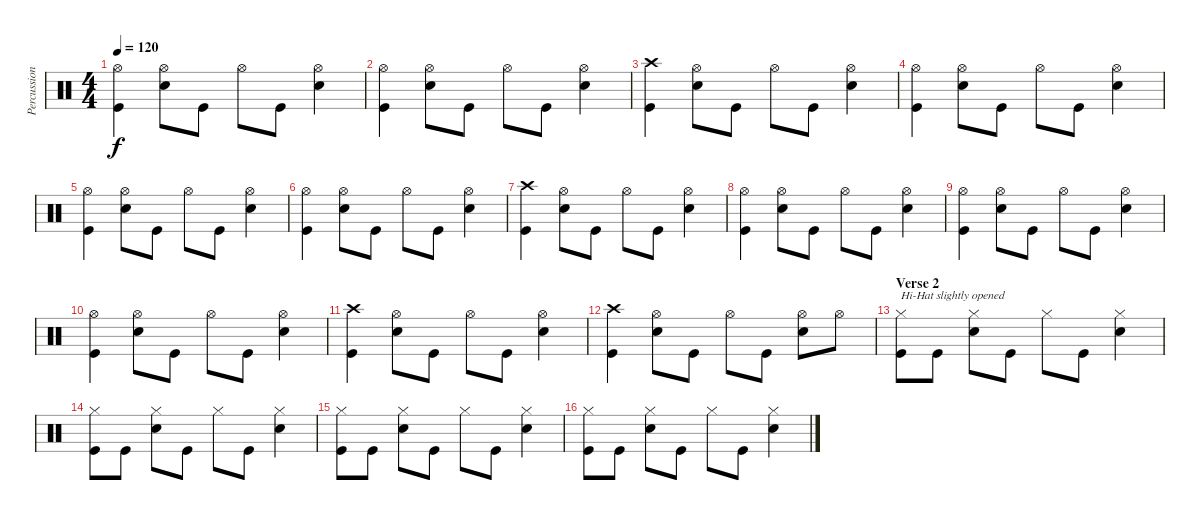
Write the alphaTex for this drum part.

\track ("Percussion" "Percussion") {instrument percussion}
\staff {score}
\articulation defaults
\ts (4 4)
\tempo 120
\clef neutral
\ks c
("Hi-Hat (open)" "Kick (hit)").4{dy f} ("Hi-Hat (open)" "Snare (hit) 2").8 "Kick (hit)".8 "Hi-Hat (open)".8 "Kick (hit)".8 ("Hi-Hat (open)" "Snare (hit) 2").4 |
("Hi-Hat (open)" "Kick (hit)").4 ("Hi-Hat (open)" "Snare (hit) 2").8 "Kick (hit)".8 "Hi-Hat (open)".8 "Kick (hit)".8 ("Hi-Hat (open)" "Snare (hit) 2").4 |
("Crash high (hit)" "Kick (hit)").4 ("Hi-Hat (open)" "Snare (hit) 2").8 "Kick (hit)".8 "Hi-Hat (open)".8 "Kick (hit)".8 ("Hi-Hat (open)" "Snare (hit) 2").4 |
("Hi-Hat (open)" "Kick (hit)").4 ("Hi-Hat (open)" "Snare (hit) 2").8 "Kick (hit)".8 "Hi-Hat (open)".8 "Kick (hit)".8 ("Hi-Hat (open)" "Snare (hit) 2").4 |
("Hi-Hat (open)" "Kick (hit)").4 ("Hi-Hat (open)" "Snare (hit) 2").8 "Kick (hit)".8 "Hi-Hat (open)".8 "Kick (hit)".8 ("Hi-Hat (open)" "Snare (hit) 2").4 |
("Hi-Hat (open)" "Kick (hit)").4 ("Hi-Hat (open)" "Snare (hit) 2").8 "Kick (hit)".8 "Hi-Hat (open)".8 "Kick (hit)".8 ("Hi-Hat (open)" "Snare (hit) 2").4 |
("Crash high (hit)" "Kick (hit)").4 ("Hi-Hat (open)" "Snare (hit) 2").8 "Kick (hit)".8 "Hi-Hat (open)".8 "Kick (hit)".8 ("Hi-Hat (open)" "Snare (hit) 2").4 |
("Hi-Hat (open)" "Kick (hit)").4 ("Hi-Hat (open)" "Snare (hit) 2").8 "Kick (hit)".8 "Hi-Hat (open)".8 "Kick (hit)".8 ("Hi-Hat (open)" "Snare (hit) 2").4 |
("Hi-Hat (open)" "Kick (hit)").4 ("Hi-Hat (open)" "Snare (hit) 2").8 "Kick (hit)".8 "Hi-Hat (open)".8 "Kick (hit)".8 ("Hi-Hat (open)" "Snare (hit) 2").4 |
("Hi-Hat (open)" "Kick (hit)").4 ("Hi-Hat (open)" "Snare (hit) 2").8 "Kick (hit)".8 "Hi-Hat (open)".8 "Kick (hit)".8 ("Hi-Hat (open)" "Snare (hit) 2").4 |
("Crash high (hit)" "Kick (hit)").4 ("Hi-Hat (open)" "Snare (hit) 2").8 "Kick (hit)".8 "Hi-Hat (open)".8 "Kick (hit)".8 ("Hi-Hat (open)" "Snare (hit) 2").4 |
("Crash high (hit)" "Kick (hit)").4 ("Hi-Hat (open)" "Snare (hit) 2").8 "Kick (hit)".8 "Hi-Hat (open)".8 "Kick (hit)".8 ("Hi-Hat (open)" "Snare (hit) 2").8 "Hi-Hat (open)".8 |
\section ("" "Verse 2")
("Hi-Hat (closed)" "Kick (hit)").8{txt "Hi-Hat slightly opened"} "Kick (hit)".8 ("Hi-Hat (closed)" "Snare (hit) 2").8 "Kick (hit)".8 "Hi-Hat (closed)".8 "Kick (hit)".8 ("Hi-Hat (closed)" "Snare (hit) 2").4 |
("Hi-Hat (closed)" "Kick (hit)").8 "Kick (hit)".8 ("Hi-Hat (closed)" "Snare (hit) 2").8 "Kick (hit)".8 "Hi-Hat (closed)".8 "Kick (hit)".8 ("Hi-Hat (closed)" "Snare (hit) 2").4 |
("Hi-Hat (closed)" "Kick (hit)").8 "Kick (hit)".8 ("Hi-Hat (closed)" "Snare (hit) 2").8 "Kick (hit)".8 "Hi-Hat (closed)".8 "Kick (hit)".8 ("Hi-Hat (closed)" "Snare (hit) 2").4 |
("Hi-Hat (closed)" "Kick (hit)").8 "Kick (hit)".8 ("Hi-Hat (closed)" "Snare (hit) 2").8 "Kick (hit)".8 "Hi-Hat (closed)".8 "Kick (hit)".8 ("Hi-Hat (closed)" "Snare (hit) 2").4
